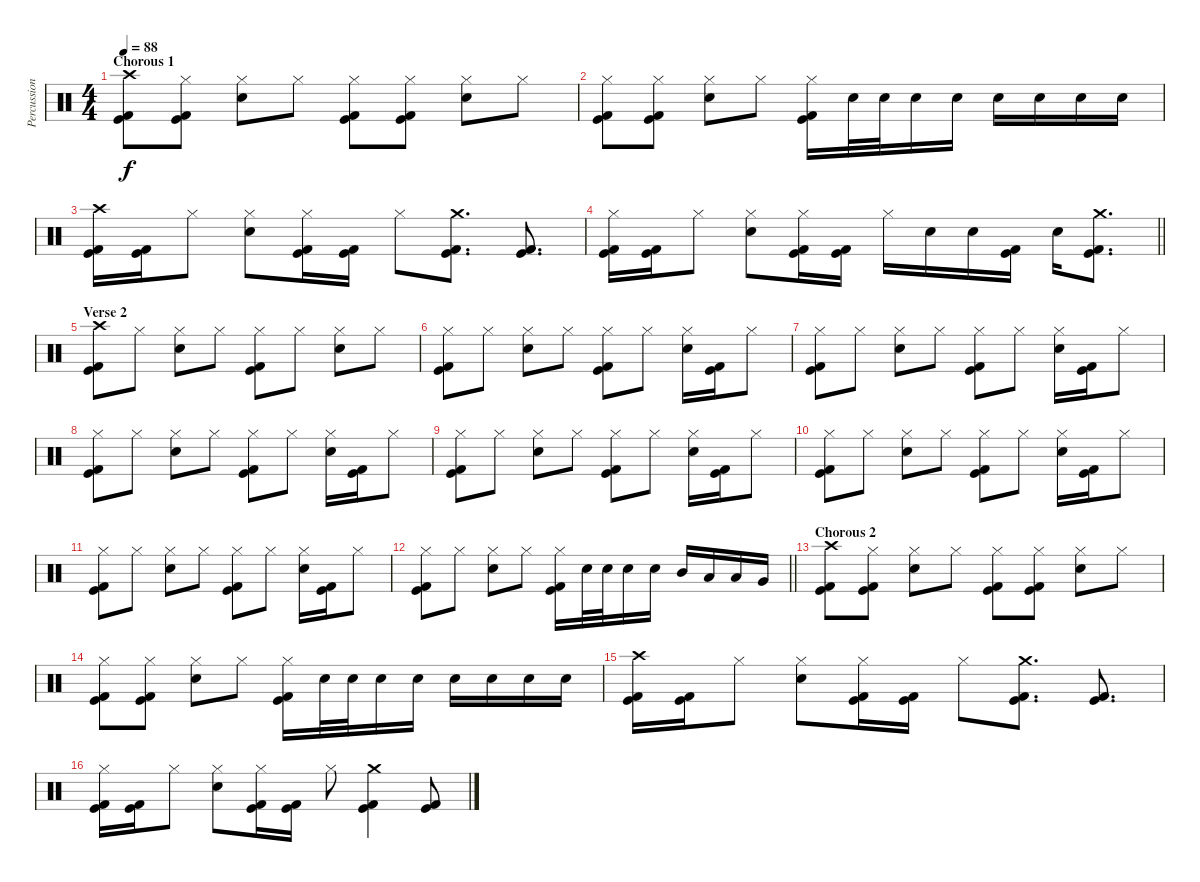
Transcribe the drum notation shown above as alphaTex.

\track ("Percussion" "Percussion") {instrument percussion}
\staff {score}
\articulation defaults
\ts (4 4)
\section ("" "Chorous 1")
\tempo 88
\clef neutral
\ks c
("Crash high (hit)" "Kick (hit)" "Kick (hit) 2").8{dy f} ("Hi-Hat (closed)" "Kick (hit)" "Kick (hit) 2").8 ("Hi-Hat (closed)" "Electric Snare (hit)").8 "Hi-Hat (closed)".8 ("Hi-Hat (closed)" "Kick (hit)" "Kick (hit) 2").8 ("Hi-Hat (closed)" "Kick (hit)" "Kick (hit) 2").8 ("Hi-Hat (closed)" "Electric Snare (hit)").8 "Hi-Hat (closed)".8 |
("Hi-Hat (closed)" "Kick (hit)" "Kick (hit) 2").8 ("Hi-Hat (closed)" "Kick (hit)" "Kick (hit) 2").8 ("Hi-Hat (closed)" "Electric Snare (hit)").8 "Hi-Hat (closed)".8 ("Hi-Hat (closed)" "Kick (hit)" "Kick (hit) 2").16 "Electric Snare (hit)".32 "Electric Snare (hit)".32 "Electric Snare (hit)".16 "Electric Snare (hit)".16 "Electric Snare (hit)".16 "Electric Snare (hit)".16 "Electric Snare (hit)".16 "Electric Snare (hit)".16 |
("Crash high (hit)" "Kick (hit)" "Kick (hit) 2").16 ("Kick (hit)" "Kick (hit) 2").16 "Hi-Hat (closed)".8 ("Hi-Hat (closed)" "Electric Snare (hit)").8 ("Hi-Hat (closed)" "Kick (hit)" "Kick (hit) 2").16 ("Kick (hit)" "Kick (hit) 2").16 "Hi-Hat (closed)".8 ("Crash medium (hit)" "Kick (hit)" "Kick (hit) 2").8{d} ("Kick (hit)" "Kick (hit) 2").8{d} |
\barLineRight lightlight
("Hi-Hat (closed)" "Kick (hit)" "Kick (hit) 2").16 ("Kick (hit)" "Kick (hit) 2").16 "Hi-Hat (closed)".8 ("Hi-Hat (closed)" "Electric Snare (hit)").8 ("Hi-Hat (closed)" "Kick (hit)" "Kick (hit) 2").16 ("Kick (hit)" "Kick (hit) 2").16 "Hi-Hat (closed)".16 "Electric Snare (hit)".16 "Electric Snare (hit)".16 ("Kick (hit)" "Kick (hit) 2").16 "Electric Snare (hit)".16 ("Crash medium (hit)" "Kick (hit)" "Kick (hit) 2").8{d} |
\section ("" "Verse 2")
("Crash high (hit)" "Kick (hit)" "Kick (hit) 2").8 "Hi-Hat (closed)".8 ("Hi-Hat (closed)" "Electric Snare (hit)").8 "Hi-Hat (closed)".8 ("Hi-Hat (closed)" "Kick (hit)" "Kick (hit) 2").8 "Hi-Hat (closed)".8 ("Hi-Hat (closed)" "Electric Snare (hit)").8 "Hi-Hat (closed)".8 |
("Hi-Hat (closed)" "Kick (hit)" "Kick (hit) 2").8 "Hi-Hat (closed)".8 ("Hi-Hat (closed)" "Electric Snare (hit)").8 "Hi-Hat (closed)".8 ("Hi-Hat (closed)" "Kick (hit)" "Kick (hit) 2").8 "Hi-Hat (closed)".8 ("Hi-Hat (closed)" "Electric Snare (hit)").16 ("Kick (hit)" "Kick (hit) 2").16 "Hi-Hat (closed)".8 |
("Hi-Hat (closed)" "Kick (hit)" "Kick (hit) 2").8 "Hi-Hat (closed)".8 ("Hi-Hat (closed)" "Electric Snare (hit)").8 "Hi-Hat (closed)".8 ("Hi-Hat (closed)" "Kick (hit)" "Kick (hit) 2").8 "Hi-Hat (closed)".8 ("Hi-Hat (closed)" "Electric Snare (hit)").16 ("Kick (hit)" "Kick (hit) 2").16 "Hi-Hat (closed)".8 |
("Hi-Hat (closed)" "Kick (hit)" "Kick (hit) 2").8 "Hi-Hat (closed)".8 ("Hi-Hat (closed)" "Electric Snare (hit)").8 "Hi-Hat (closed)".8 ("Hi-Hat (closed)" "Kick (hit)" "Kick (hit) 2").8 "Hi-Hat (closed)".8 ("Hi-Hat (closed)" "Electric Snare (hit)").16 ("Kick (hit)" "Kick (hit) 2").16 "Hi-Hat (closed)".8 |
("Hi-Hat (closed)" "Kick (hit)" "Kick (hit) 2").8 "Hi-Hat (closed)".8 ("Hi-Hat (closed)" "Electric Snare (hit)").8 "Hi-Hat (closed)".8 ("Hi-Hat (closed)" "Kick (hit)" "Kick (hit) 2").8 "Hi-Hat (closed)".8 ("Hi-Hat (closed)" "Electric Snare (hit)").16 ("Kick (hit)" "Kick (hit) 2").16 "Hi-Hat (closed)".8 |
("Hi-Hat (closed)" "Kick (hit)" "Kick (hit) 2").8 "Hi-Hat (closed)".8 ("Hi-Hat (closed)" "Electric Snare (hit)").8 "Hi-Hat (closed)".8 ("Hi-Hat (closed)" "Kick (hit)" "Kick (hit) 2").8 "Hi-Hat (closed)".8 ("Hi-Hat (closed)" "Electric Snare (hit)").16 ("Kick (hit)" "Kick (hit) 2").16 "Hi-Hat (closed)".8 |
("Hi-Hat (closed)" "Kick (hit)" "Kick (hit) 2").8 "Hi-Hat (closed)".8 ("Hi-Hat (closed)" "Electric Snare (hit)").8 "Hi-Hat (closed)".8 ("Hi-Hat (closed)" "Kick (hit)" "Kick (hit) 2").8 "Hi-Hat (closed)".8 ("Hi-Hat (closed)" "Electric Snare (hit)").16 ("Kick (hit)" "Kick (hit) 2").16 "Hi-Hat (closed)".8 |
\barLineRight lightlight
("Hi-Hat (closed)" "Kick (hit)" "Kick (hit) 2").8 "Hi-Hat (closed)".8 ("Hi-Hat (closed)" "Electric Snare (hit)").8 "Hi-Hat (closed)".8 ("Hi-Hat (closed)" "Kick (hit)" "Kick (hit) 2").16 "Electric Snare (hit)".32 "Electric Snare (hit)".32 "Electric Snare (hit)".16 "Electric Snare (hit)".16 "Mid Tom (hit)".16 "Low Tom (hit)".16 "Low Tom (hit)".16 "Very Low Tom (hit)".16 |
\section ("" "Chorous 2")
("Crash high (hit)" "Kick (hit)" "Kick (hit) 2").8 ("Hi-Hat (closed)" "Kick (hit)" "Kick (hit) 2").8 ("Hi-Hat (closed)" "Electric Snare (hit)").8 "Hi-Hat (closed)".8 ("Hi-Hat (closed)" "Kick (hit)" "Kick (hit) 2").8 ("Hi-Hat (closed)" "Kick (hit)" "Kick (hit) 2").8 ("Hi-Hat (closed)" "Electric Snare (hit)").8 "Hi-Hat (closed)".8 |
("Hi-Hat (closed)" "Kick (hit)" "Kick (hit) 2").8 ("Hi-Hat (closed)" "Kick (hit)" "Kick (hit) 2").8 ("Hi-Hat (closed)" "Electric Snare (hit)").8 "Hi-Hat (closed)".8 ("Hi-Hat (closed)" "Kick (hit)" "Kick (hit) 2").16 "Electric Snare (hit)".32 "Electric Snare (hit)".32 "Electric Snare (hit)".16 "Electric Snare (hit)".16 "Electric Snare (hit)".16 "Electric Snare (hit)".16 "Electric Snare (hit)".16 "Electric Snare (hit)".16 |
("Crash high (hit)" "Kick (hit)" "Kick (hit) 2").16 ("Kick (hit)" "Kick (hit) 2").16 "Hi-Hat (closed)".8 ("Hi-Hat (closed)" "Electric Snare (hit)").8 ("Hi-Hat (closed)" "Kick (hit)" "Kick (hit) 2").16 ("Kick (hit)" "Kick (hit) 2").16 "Hi-Hat (closed)".8 ("Crash medium (hit)" "Kick (hit)" "Kick (hit) 2").8{d} ("Kick (hit)" "Kick (hit) 2").8{d} |
("Hi-Hat (closed)" "Kick (hit)" "Kick (hit) 2").16 ("Kick (hit)" "Kick (hit) 2").16 "Hi-Hat (closed)".8 ("Hi-Hat (closed)" "Electric Snare (hit)").8 ("Hi-Hat (closed)" "Kick (hit)" "Kick (hit) 2").16 ("Kick (hit)" "Kick (hit) 2").16 "Hi-Hat (closed)".8 ("Crash medium (hit)" "Kick (hit)" "Kick (hit) 2").4 ("Kick (hit)" "Kick (hit) 2").8
